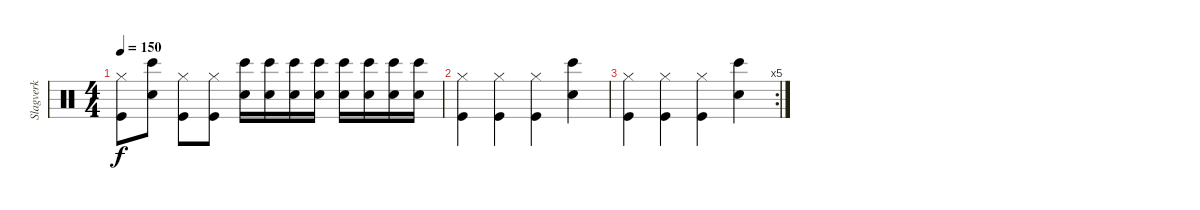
\track ("Slagverk" "Slagverk") {instrument percussion}
\staff {score}
\articulation defaults
\ts (4 4)
\tempo 150
\clef neutral
\ks c
("Hi-Hat (closed)" "Kick (hit)").8{dy f} ("Snare (hit) 2" "Bongo High (hit)").8 ("Hi-Hat (closed)" "Kick (hit)").8 ("Hi-Hat (closed)" "Kick (hit)").8 ("Snare (hit) 2" "Bongo High (hit)").16 ("Snare (hit) 2" "Bongo High (hit)").16 ("Snare (hit) 2" "Bongo High (hit)").16 ("Snare (hit) 2" "Bongo High (hit)").16 ("Snare (hit) 2" "Bongo High (hit)").16 ("Snare (hit) 2" "Bongo High (hit)").16 ("Snare (hit) 2" "Bongo High (hit)").16 ("Snare (hit) 2" "Bongo High (hit)").16 |
("Hi-Hat (closed)" "Kick (hit)").4 ("Hi-Hat (closed)" "Kick (hit)").4 ("Hi-Hat (closed)" "Kick (hit)").4 ("Snare (hit) 2" "Bongo High (hit)").4 |
\rc 5
("Hi-Hat (closed)" "Kick (hit)").4 ("Hi-Hat (closed)" "Kick (hit)").4 ("Hi-Hat (closed)" "Kick (hit)").4 ("Snare (hit) 2" "Bongo High (hit)").4
